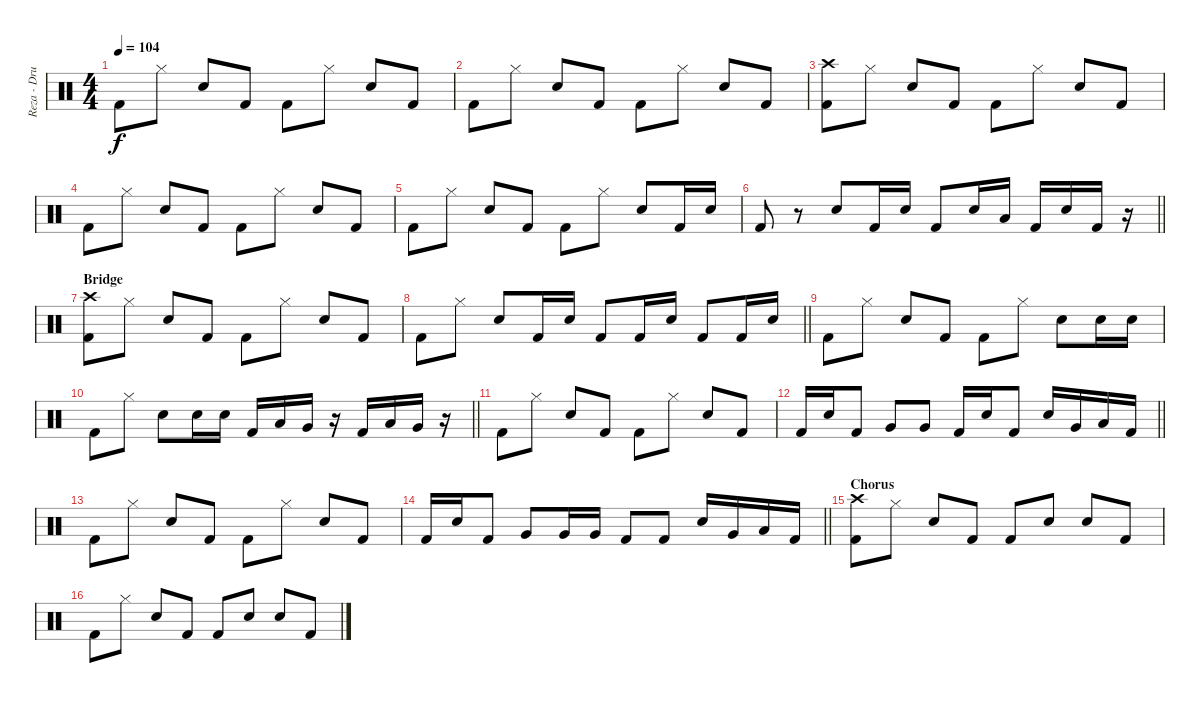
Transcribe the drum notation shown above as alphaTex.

\track ("Reza - Drums" "Reza - Dru") {instrument percussion}
\staff {score}
\articulation defaults
\ts (4 4)
\tempo 104
\clef neutral
\ks c "Kick (hit) 2".8{dy f} "Hi-Hat (closed)".8 "Snare (hit) 2".8 "Kick (hit) 2".8 "Kick (hit) 2".8 "Hi-Hat (closed)".8 "Snare (hit) 2".8 "Kick (hit) 2".8
|
"Kick (hit) 2".8 "Hi-Hat (closed)".8 "Snare (hit) 2".8 "Kick (hit) 2".8 "Kick (hit) 2".8 "Hi-Hat (closed)".8 "Snare (hit) 2".8 "Kick (hit) 2".8 |
("Kick (hit) 2" "Crash high (hit)").8 "Hi-Hat (closed)".8 "Snare (hit) 2".8 "Kick (hit) 2".8 "Kick (hit) 2".8 "Hi-Hat (closed)".8 "Snare (hit) 2".8 "Kick (hit) 2".8 |
"Kick (hit) 2".8 "Hi-Hat (closed)".8 "Snare (hit) 2".8 "Kick (hit) 2".8 "Kick (hit) 2".8 "Hi-Hat (closed)".8 "Snare (hit) 2".8 "Kick (hit) 2".8 |
"Kick (hit) 2".8 "Hi-Hat (closed)".8 "Snare (hit) 2".8 "Kick (hit) 2".8 "Kick (hit) 2".8 "Hi-Hat (closed)".8 "Snare (hit) 2".8 "Kick (hit) 2".16 "Snare (hit) 2".16 |
\barLineRight lightlight "Kick (hit) 2".8
r.8 "Snare (hit) 2".8 "Kick (hit) 2".16 "Snare (hit) 2".16 "Kick (hit) 2".8 "Snare (hit) 2".16 "Low Floor Tom (hit)".16 "Kick (hit) 2".16 "Snare (hit) 2".16 "Kick (hit) 2".16 r.16 |
\section ("" "Bridge")
("Kick (hit) 2" "Crash high (hit)").8 "Hi-Hat (closed)".8 "Snare (hit) 2".8 "Kick (hit) 2".8 "Kick (hit) 2".8 "Hi-Hat (closed)".8 "Snare (hit) 2".8 "Kick (hit) 2".8 |
\barLineRight lightlight "Kick (hit) 2".8 "Hi-Hat (closed)".8 "Snare (hit) 2".8 "Kick (hit) 2".16 "Snare (hit) 2".16 "Kick (hit) 2".8 "Kick (hit) 2".16 "Snare (hit) 2".16 "Kick (hit) 2".8 "Kick (hit) 2".16 "Snare (hit) 2".16
|
"Kick (hit) 2".8 "Hi-Hat (closed)".8 "Snare (hit) 2".8 "Kick (hit) 2".8 "Kick (hit) 2".8 "Hi-Hat (closed)".8 "Snare (hit) 2".8 "Snare (hit) 2".16 "Snare (hit) 2".16 |
\barLineRight lightlight "Kick (hit) 2".8 "Hi-Hat (closed)".8 "Snare (hit) 2".8 "Snare (hit) 2".16 "Snare (hit) 2".16 "Kick (hit) 2".16 "Low Floor Tom (hit)".16 "Very Low Tom (hit)".16
r.16 "Kick (hit) 2".16 "Low Floor Tom (hit)".16 "Very Low Tom (hit)".16 r.16 |
"Kick (hit) 2".8 "Hi-Hat (closed)".8 "Snare (hit) 2".8 "Kick (hit) 2".8 "Kick (hit) 2".8 "Hi-Hat (closed)".8 "Snare (hit) 2".8 "Kick (hit) 2".8 |
\barLineRight lightlight "Kick (hit) 2".16 "Snare (hit) 2".16 "Kick (hit) 2".8 "Very Low Tom (hit)".8 "Very Low Tom (hit)".8 "Kick (hit) 2".16 "Snare (hit) 2".16 "Kick (hit) 2".8 "Snare (hit) 2".16 "Very Low Tom (hit)".16 "Low Floor Tom (hit)".16 "Kick (hit) 2".16
|
"Kick (hit) 2".8 "Hi-Hat (closed)".8 "Snare (hit) 2".8 "Kick (hit) 2".8 "Kick (hit) 2".8 "Hi-Hat (closed)".8 "Snare (hit) 2".8 "Kick (hit) 2".8 |
\barLineRight lightlight "Kick (hit) 2".16 "Snare (hit) 2".16 "Kick (hit) 2".8 "Very Low Tom (hit)".8 "Very Low Tom (hit)".16 "Very Low Tom (hit)".16 "Kick (hit) 2".8 "Kick (hit) 2".8 "Snare (hit) 2".16 "Very Low Tom (hit)".16 "Low Floor Tom (hit)".16 "Kick (hit) 2".16
|
\section ("" "Chorus")
("Kick (hit) 2" "Crash high (hit)").8 "Hi-Hat (closed)".8 "Snare (hit) 2".8 "Kick (hit) 2".8 "Kick (hit) 2".8 "Snare (hit) 2".8 "Snare (hit) 2".8 "Kick (hit) 2".8 |
"Kick (hit) 2".8 "Hi-Hat (closed)".8 "Snare (hit) 2".8 "Kick (hit) 2".8 "Kick (hit) 2".8 "Snare (hit) 2".8 "Snare (hit) 2".8 "Kick (hit) 2".8
